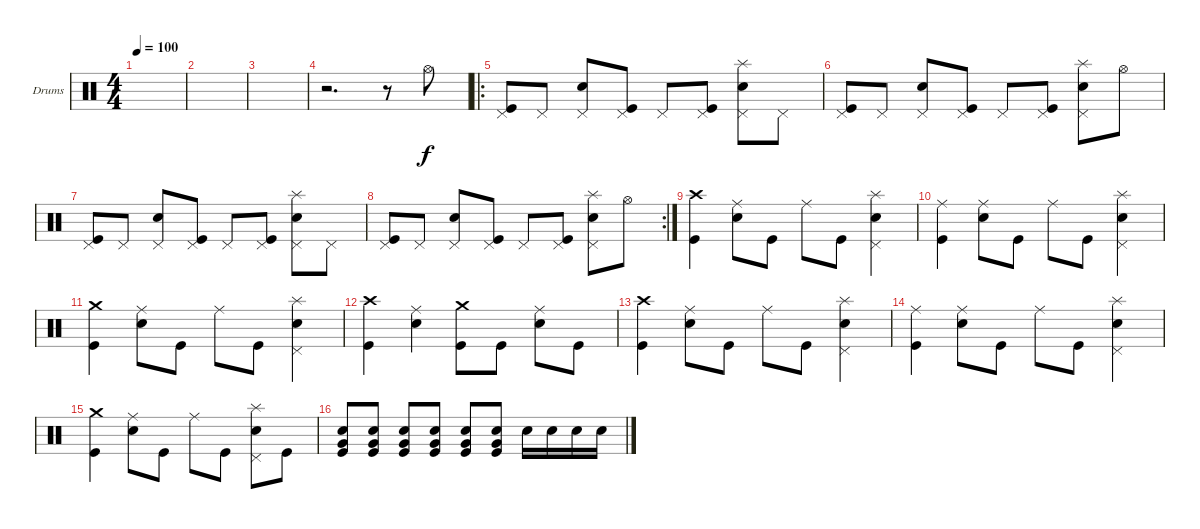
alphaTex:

\defaultSystemsLayout 4
\bracketExtendMode groupsimilarinstruments
\firstSystemTrackNameOrientation horizontal
\otherSystemsTrackNameOrientation horizontal
\track ("Drumkit" "Drums") {instrument percussion}
\staff {score}
\articulation defaults
\ts (4 4)
\tempo 100
\clef neutral
\scale
0.472222
\ks c
|
\scale
0.263889 |
\scale
0.263889 |
\scale
0.311475 r.2{d} r.8 "Hi-Hat (open)".8 |
\ro
\scale
0.377049 ("Pedal Hi-Hat (hit)" "Kick (hit)").8 "Pedal Hi-Hat (hit)".8 ("Pedal Hi-Hat (hit)" "Snare (hit) 2").8 ("Pedal Hi-Hat (hit)" "Kick (hit)").8 "Pedal Hi-Hat (hit)".8 ("Pedal Hi-Hat (hit)" "Kick (hit)").8 ("Pedal Hi-Hat (hit)" "Splash (hit)" "Snare (hit) 2").8 "Pedal Hi-Hat (hit)".8 |
\scale
0.311475 ("Pedal Hi-Hat (hit)" "Kick (hit)").8 "Pedal Hi-Hat (hit)".8 ("Pedal Hi-Hat (hit)" "Snare (hit) 2").8 ("Pedal Hi-Hat (hit)" "Kick (hit)").8 "Pedal Hi-Hat (hit)".8 ("Pedal Hi-Hat (hit)" "Kick (hit)").8 ("Pedal Hi-Hat (hit)" "Splash (hit)" "Snare (hit) 2").8 "Hi-Hat (open)".8 |
\scale
0.322034 ("Pedal Hi-Hat (hit)" "Kick (hit)").8 "Pedal Hi-Hat (hit)".8 ("Pedal Hi-Hat (hit)" "Snare (hit) 2").8 ("Pedal Hi-Hat (hit)" "Kick (hit)").8 "Pedal Hi-Hat (hit)".8 ("Pedal Hi-Hat (hit)" "Kick (hit)").8 ("Pedal Hi-Hat (hit)" "Splash (hit)" "Snare (hit) 2").8 "Pedal Hi-Hat (hit)".8 |
\rc 2
\scale
0.355932 ("Pedal Hi-Hat (hit)" "Kick (hit)").8 "Pedal Hi-Hat (hit)".8 ("Pedal Hi-Hat (hit)" "Snare (hit) 2").8 ("Pedal Hi-Hat (hit)" "Kick (hit)").8 "Pedal Hi-Hat (hit)".8 ("Pedal Hi-Hat (hit)" "Kick (hit)").8 ("Pedal Hi-Hat (hit)" "Splash (hit)" "Snare (hit) 2").8 "Hi-Hat (open)".8 |
\scale
0.322034 ("Crash high (hit)" "Kick (hit)").4 ("Ride (middle)" "Snare (hit) 2").8 "Kick (hit)".8 "Ride (middle)".8 "Kick (hit)".8 ("Pedal Hi-Hat (hit)" "Splash (hit)" "Snare (hit) 2").4 |
\scale
0.333333 ("Ride (middle)" "Kick (hit)").4 ("Ride (middle)" "Snare (hit) 2").8 "Kick (hit)".8 "Ride (middle)".8 "Kick (hit)".8 ("Pedal Hi-Hat (hit)" "Splash (hit)" "Snare (hit) 2").4 |
\scale
0.333333 ("Crash medium (hit)" "Kick (hit)").4 ("Ride (middle)" "Snare (hit) 2").8 "Kick (hit)".8 "Ride (middle)".8 "Kick (hit)".8 ("Pedal Hi-Hat (hit)" "Splash (hit)" "Snare (hit) 2").4 |
\scale
0.333333 ("Crash high (hit)" "Kick (hit)").4 ("Ride (middle)" "Snare (hit) 2").4 ("Crash medium (hit)" "Kick (hit)").8 "Kick (hit)".8 ("Ride (middle)" "Snare (hit) 2").8 "Kick (hit)".8 |
\scale
0.333333 ("Crash high (hit)" "Kick (hit)").4 ("Ride (middle)" "Snare (hit) 2").8 "Kick (hit)".8 "Ride (middle)".8 "Kick (hit)".8 ("Pedal Hi-Hat (hit)" "Splash (hit)" "Snare (hit) 2").4 |
\scale
0.333333 ("Ride (middle)" "Kick (hit)").4 ("Ride (middle)" "Snare (hit) 2").8 "Kick (hit)".8 "Ride (middle)".8 "Kick (hit)".8 ("Pedal Hi-Hat (hit)" "Splash (hit)" "Snare (hit) 2").4 |
\scale
0.333333 ("Crash medium (hit)" "Kick (hit)").4 ("Ride (middle)" "Snare (hit) 2").8 "Kick (hit)".8 "Ride (middle)".8 "Kick (hit)".8 ("Pedal Hi-Hat (hit)" "Splash (hit)" "Snare (hit) 2").8 "Kick (hit)".8 |
\scale
0.333333 ("Very Low Tom (hit)" "Snare (hit) 2" "Kick (hit)").8 ("Very Low Tom (hit)" "Snare (hit) 2" "Kick (hit)").8 ("Very Low Tom (hit)" "Snare (hit) 2" "Kick (hit)").8 ("Very Low Tom (hit)" "Snare (hit) 2" "Kick (hit)").8 ("Very Low Tom (hit)" "Snare (hit) 2" "Kick (hit)").8 ("Very Low Tom (hit)" "Snare (hit) 2" "Kick (hit)").8 "Snare (hit) 2".16 "Snare (hit) 2".16 "Snare (hit) 2".16 "Snare (hit) 2".16
